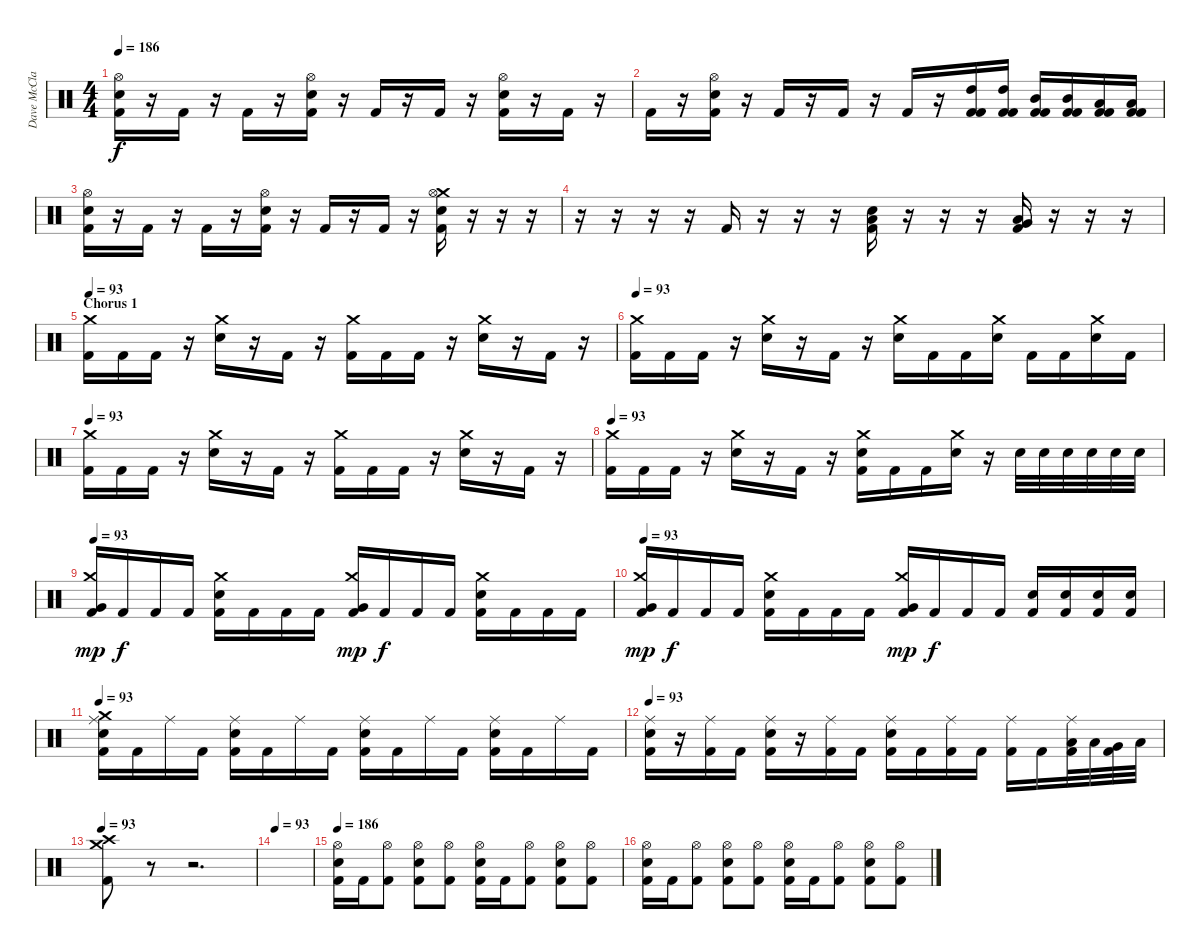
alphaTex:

\track ("Dave McClain" "Dave McCla") {instrument percussion}
\staff {score}
\articulation defaults
\ts (4 4)
\tempo 186
\clef neutral
\ks c
("Hi-Hat (open)" "Snare (hit) 2" "Kick (hit) 2").16{dy f} r.16 "Kick (hit) 2".16 r.16 "Kick (hit) 2".16 r.16 ("Hi-Hat (open)" "Snare (hit) 2" "Kick (hit) 2").16 r.16 "Kick (hit) 2".16 r.16 "Kick (hit) 2".16 r.16 ("Hi-Hat (open)" "Snare (hit) 2" "Kick (hit) 2").16 r.16 "Kick (hit) 2".16 r.16 |
"Kick (hit) 2".16 r.16 ("Hi-Hat (open)" "Snare (hit) 2" "Kick (hit) 2").16 r.16 "Kick (hit) 2".16 r.16 "Kick (hit) 2".16 r.16 "Kick (hit) 2".16 r.16 ("High Tom (hit)" "Kick (hit) 2" "Kick (hit) 2").16 ("High Tom (hit)" "Kick (hit) 2" "Kick (hit) 2").16 ("Mid Tom (hit)" "Kick (hit) 2" "Kick (hit) 2").16 ("Mid Tom (hit)" "Kick (hit) 2" "Kick (hit) 2").16 ("Low Tom (hit)" "Kick (hit) 2" "Kick (hit) 2").16 ("Low Tom (hit)" "Kick (hit) 2" "Kick (hit) 2").16 |
("Hi-Hat (open)" "Snare (hit) 2" "Kick (hit) 2").16 r.16 "Kick (hit) 2".16 r.16 "Kick (hit) 2".16 r.16 ("Hi-Hat (open)" "Snare (hit) 2" "Kick (hit) 2").16 r.16 "Kick (hit) 2".16 r.16 "Kick (hit) 2".16 r.16 ("Crash medium (hit)" "Hi-Hat (open)" "Snare (hit) 2" "Kick (hit) 2").16 r.16 r.16 r.16 |
r.16 r.16 r.16 r.16 "Kick (hit) 2".16 r.16 r.16 r.16 ("Low Tom (hit)" "Snare (hit) 2" "Kick (hit) 2").16 r.16 r.16 r.16 ("Very Low Tom (hit)" "Low Tom (hit)" "Kick (hit) 2").16 r.16 r.16 r.16 |
\section ("" "Chorus 1")
\tempo 93
("Crash medium (hit)" "Kick (hit) 2").16 "Kick (hit) 2".16 "Kick (hit) 2".16 r.16 ("Crash medium (hit)" "Snare (hit) 2").16 r.16 "Kick (hit) 2".16 r.16 ("Crash medium (hit)" "Kick (hit) 2").16 "Kick (hit) 2".16 "Kick (hit) 2".16 r.16 ("Crash medium (hit)" "Snare (hit) 2").16 r.16 "Kick (hit) 2".16 r.16 |
\tempo 93
("Crash medium (hit)" "Kick (hit) 2").16 "Kick (hit) 2".16 "Kick (hit) 2".16 r.16 ("Crash medium (hit)" "Snare (hit) 2").16 r.16 "Kick (hit) 2".16 r.16 ("Crash medium (hit)" "Snare (hit) 2").16 "Kick (hit) 2".16 "Kick (hit) 2".16 ("Crash medium (hit)" "Snare (hit) 2").16 "Kick (hit) 2".16 "Kick (hit) 2".16 ("Crash medium (hit)" "Snare (hit) 2").16 "Kick (hit) 2".16 |
\tempo 93
("Crash medium (hit)" "Kick (hit) 2").16 "Kick (hit) 2".16 "Kick (hit) 2".16 r.16 ("Crash medium (hit)" "Snare (hit) 2").16 r.16 "Kick (hit) 2".16 r.16 ("Crash medium (hit)" "Kick (hit) 2").16 "Kick (hit) 2".16 "Kick (hit) 2".16 r.16 ("Crash medium (hit)" "Snare (hit) 2").16 r.16 "Kick (hit) 2".16 r.16 |
\tempo 93
("Crash medium (hit)" "Kick (hit) 2").16 "Kick (hit) 2".16 "Kick (hit) 2".16 r.16 ("Crash medium (hit)" "Snare (hit) 2").16 r.16 "Kick (hit) 2".16 r.16 ("Crash medium (hit)" "Snare (hit) 2" "Kick (hit) 2").16 "Kick (hit) 2".16 "Kick (hit) 2".16 ("Crash medium (hit)" "Snare (hit) 2").16 r.16 "Snare (hit) 2".32 "Snare (hit) 2".32 "Snare (hit) 2".32 "Snare (hit) 2".32 "Snare (hit) 2".32 "Snare (hit) 2".32 |
\tempo 93
("Crash medium (hit)" "Very Low Tom (hit)" "Kick (hit) 2").16{dy mp} "Kick (hit) 2".16{dy f} "Kick (hit) 2".16 "Kick (hit) 2".16 ("Crash medium (hit)" "Snare (hit) 2" "Kick (hit) 2").16 "Kick (hit) 2".16 "Kick (hit) 2".16 "Kick (hit) 2".16 ("Crash medium (hit)" "Very Low Tom (hit)" "Kick (hit) 2").16{dy mp} "Kick (hit) 2".16{dy f} "Kick (hit) 2".16 "Kick (hit) 2".16 ("Crash medium (hit)" "Snare (hit) 2" "Kick (hit) 2").16 "Kick (hit) 2".16 "Kick (hit) 2".16 "Kick (hit) 2".16 |
\tempo 93
("Crash medium (hit)" "Very Low Tom (hit)" "Kick (hit) 2").16{dy mp} "Kick (hit) 2".16{dy f} "Kick (hit) 2".16 "Kick (hit) 2".16 ("Crash medium (hit)" "Snare (hit) 2" "Kick (hit) 2").16 "Kick (hit) 2".16 "Kick (hit) 2".16 "Kick (hit) 2".16 ("Crash medium (hit)" "Very Low Tom (hit)" "Kick (hit) 2").16{dy mp} "Kick (hit) 2".16{dy f} "Kick (hit) 2".16 "Kick (hit) 2".16 ("Snare (hit) 2" "Kick (hit) 2").16 ("Snare (hit) 2" "Kick (hit) 2").16 ("Snare (hit) 2" "Kick (hit) 2").16 ("Snare (hit) 2" "Kick (hit) 2").16 |
\tempo 93
("Crash medium (hit)" "Ride (middle)" "Snare (hit) 2" "Kick (hit) 2").16 "Kick (hit) 2".16 "Ride (middle)".16 "Kick (hit) 2".16 ("Ride (middle)" "Snare (hit) 2" "Kick (hit) 2").16 "Kick (hit) 2".16 "Ride (middle)".16 "Kick (hit) 2".16 ("Ride (middle)" "Snare (hit) 2" "Kick (hit) 2").16 "Kick (hit) 2".16 "Ride (middle)".16 "Kick (hit) 2".16 ("Ride (middle)" "Snare (hit) 2" "Kick (hit) 2").16 "Kick (hit) 2".16 "Ride (middle)".16 "Kick (hit) 2".16 |
\tempo 93
("Ride (middle)" "Snare (hit) 2" "Kick (hit) 2").16 r.16 ("Ride (middle)" "Kick (hit) 2").16 "Kick (hit) 2".16 ("Ride (middle)" "Snare (hit) 2" "Kick (hit) 2").16 r.16 ("Ride (middle)" "Kick (hit) 2").16 "Kick (hit) 2".16 ("Ride (middle)" "Snare (hit) 2" "Kick (hit) 2").16 "Kick (hit) 2".16 ("Ride (middle)" "Kick (hit) 2").16 "Kick (hit) 2".16 ("Ride (middle)" "Kick (hit) 2").16 "Kick (hit) 2".16 ("Ride (middle)" "Low Tom (hit)" "Kick (hit) 2").32 "Low Tom (hit)".32 ("Very Low Tom (hit)" "Kick (hit) 2").32 "Low Floor Tom (hit)".32 |
\tempo 93
("Crash high (hit)" "Crash medium (hit)" "Kick (hit) 2").8 r.8 r.2{d} |
\tempo 93
|
\tempo 186
("Hi-Hat (open)" "Snare (hit) 2" "Kick (hit) 2").16 "Kick (hit) 2".16 ("Hi-Hat (open)" "Kick (hit) 2").8 ("Hi-Hat (open)" "Snare (hit) 2" "Kick (hit) 2").8 ("Hi-Hat (open)" "Kick (hit) 2").8 ("Hi-Hat (open)" "Snare (hit) 2" "Kick (hit) 2").16 "Kick (hit) 2".16 ("Hi-Hat (open)" "Kick (hit) 2").8 ("Hi-Hat (open)" "Snare (hit) 2" "Kick (hit) 2").8 ("Hi-Hat (open)" "Kick (hit) 2").8 |
("Hi-Hat (open)" "Snare (hit) 2" "Kick (hit) 2").16 "Kick (hit) 2".16 ("Hi-Hat (open)" "Kick (hit) 2").8 ("Hi-Hat (open)" "Snare (hit) 2" "Kick (hit) 2").8 ("Hi-Hat (open)" "Kick (hit) 2").8 ("Hi-Hat (open)" "Snare (hit) 2" "Kick (hit) 2").16 "Kick (hit) 2".16 ("Hi-Hat (open)" "Kick (hit) 2").8 ("Hi-Hat (open)" "Snare (hit) 2" "Kick (hit) 2").8 ("Hi-Hat (open)" "Kick (hit) 2").8
